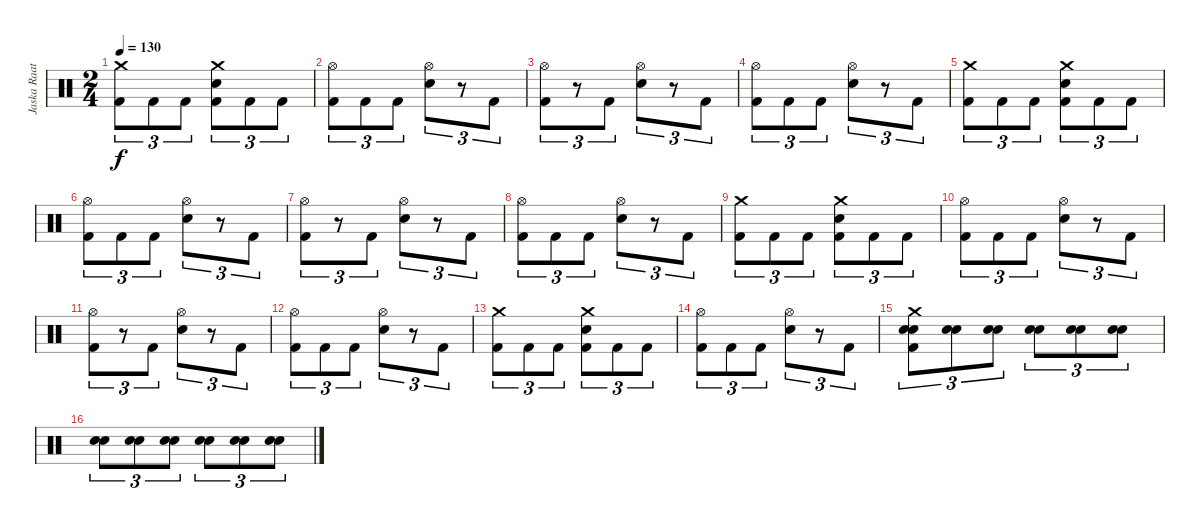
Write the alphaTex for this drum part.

\track ("Jaska Raatikainen Drum Part" "Jaska Raat") {instrument percussion}
\staff {score}
\articulation defaults
\ts (2 4)
\tempo 130
\clef neutral
\ks c
("Crash medium (hit)" "Kick (hit) 2").8{tu (3 2) dy f} "Kick (hit) 2".8{tu (3 2)} "Kick (hit) 2".8{tu (3 2)} ("Crash medium (hit)" "Electric Snare (hit)" "Kick (hit) 2").8{tu (3 2)} "Kick (hit) 2".8{tu (3 2)} "Kick (hit) 2".8{tu (3 2)} |
("Hi-Hat (open)" "Kick (hit) 2").8{tu (3 2)} "Kick (hit) 2".8{tu (3 2)} "Kick (hit) 2".8{tu (3 2)} ("Hi-Hat (open)" "Electric Snare (hit)").8{tu (3 2)} r.8{tu (3 2)} "Kick (hit) 2".8{tu (3 2)} |
("Hi-Hat (open)" "Kick (hit) 2").8{tu (3 2)} r.8{tu (3 2)} "Kick (hit) 2".8{tu (3 2)} ("Hi-Hat (open)" "Electric Snare (hit)").8{tu (3 2)} r.8{tu (3 2)} "Kick (hit) 2".8{tu (3 2)} |
("Hi-Hat (open)" "Kick (hit) 2").8{tu (3 2)} "Kick (hit) 2".8{tu (3 2)} "Kick (hit) 2".8{tu (3 2)} ("Hi-Hat (open)" "Electric Snare (hit)").8{tu (3 2)} r.8{tu (3 2)} "Kick (hit) 2".8{tu (3 2)} |
("Crash medium (hit)" "Kick (hit) 2").8{tu (3 2)} "Kick (hit) 2".8{tu (3 2)} "Kick (hit) 2".8{tu (3 2)} ("Crash medium (hit)" "Electric Snare (hit)" "Kick (hit) 2").8{tu (3 2)} "Kick (hit) 2".8{tu (3 2)} "Kick (hit) 2".8{tu (3 2)} |
("Hi-Hat (open)" "Kick (hit) 2").8{tu (3 2)} "Kick (hit) 2".8{tu (3 2)} "Kick (hit) 2".8{tu (3 2)} ("Hi-Hat (open)" "Electric Snare (hit)").8{tu (3 2)} r.8{tu (3 2)} "Kick (hit) 2".8{tu (3 2)} |
("Hi-Hat (open)" "Kick (hit) 2").8{tu (3 2)} r.8{tu (3 2)} "Kick (hit) 2".8{tu (3 2)} ("Hi-Hat (open)" "Electric Snare (hit)").8{tu (3 2)} r.8{tu (3 2)} "Kick (hit) 2".8{tu (3 2)} |
("Hi-Hat (open)" "Kick (hit) 2").8{tu (3 2)} "Kick (hit) 2".8{tu (3 2)} "Kick (hit) 2".8{tu (3 2)} ("Hi-Hat (open)" "Electric Snare (hit)").8{tu (3 2)} r.8{tu (3 2)} "Kick (hit) 2".8{tu (3 2)} |
("Crash medium (hit)" "Kick (hit) 2").8{tu (3 2)} "Kick (hit) 2".8{tu (3 2)} "Kick (hit) 2".8{tu (3 2)} ("Crash medium (hit)" "Electric Snare (hit)" "Kick (hit) 2").8{tu (3 2)} "Kick (hit) 2".8{tu (3 2)} "Kick (hit) 2".8{tu (3 2)} |
("Hi-Hat (open)" "Kick (hit) 2").8{tu (3 2)} "Kick (hit) 2".8{tu (3 2)} "Kick (hit) 2".8{tu (3 2)} ("Hi-Hat (open)" "Electric Snare (hit)").8{tu (3 2)} r.8{tu (3 2)} "Kick (hit) 2".8{tu (3 2)} |
("Hi-Hat (open)" "Kick (hit) 2").8{tu (3 2)} r.8{tu (3 2)} "Kick (hit) 2".8{tu (3 2)} ("Hi-Hat (open)" "Electric Snare (hit)").8{tu (3 2)} r.8{tu (3 2)} "Kick (hit) 2".8{tu (3 2)} |
("Hi-Hat (open)" "Kick (hit) 2").8{tu (3 2)} "Kick (hit) 2".8{tu (3 2)} "Kick (hit) 2".8{tu (3 2)} ("Hi-Hat (open)" "Electric Snare (hit)").8{tu (3 2)} r.8{tu (3 2)} "Kick (hit) 2".8{tu (3 2)} |
("Crash medium (hit)" "Kick (hit) 2").8{tu (3 2)} "Kick (hit) 2".8{tu (3 2)} "Kick (hit) 2".8{tu (3 2)} ("Crash medium (hit)" "Electric Snare (hit)" "Kick (hit) 2").8{tu (3 2)} "Kick (hit) 2".8{tu (3 2)} "Kick (hit) 2".8{tu (3 2)} |
("Hi-Hat (open)" "Kick (hit) 2").8{tu (3 2)} "Kick (hit) 2".8{tu (3 2)} "Kick (hit) 2".8{tu (3 2)} ("Hi-Hat (open)" "Electric Snare (hit)").8{tu (3 2)} r.8{tu (3 2)} "Kick (hit) 2".8{tu (3 2)} |
("Crash medium (hit)" "Electric Snare (hit)" "Electric Snare (hit)" "Kick (hit) 2").8{tu (3 2) volume 7} ("Electric Snare (hit)" "Electric Snare (hit)").8{tu (3 2) volume 14} ("Electric Snare (hit)" "Electric Snare (hit)").8{tu (3 2)} ("Electric Snare (hit)" "Electric Snare (hit)").8{tu (3 2)} ("Electric Snare (hit)" "Electric Snare (hit)").8{tu (3 2)} ("Electric Snare (hit)" "Electric Snare (hit)").8{tu (3 2)} |
("Electric Snare (hit)" "Electric Snare (hit)").8{tu (3 2)} ("Electric Snare (hit)" "Electric Snare (hit)").8{tu (3 2)} ("Electric Snare (hit)" "Electric Snare (hit)").8{tu (3 2)} ("Electric Snare (hit)" "Electric Snare (hit)").8{tu (3 2)} ("Electric Snare (hit)" "Electric Snare (hit)").8{tu (3 2)} ("Electric Snare (hit)" "Electric Snare (hit)").8{tu (3 2)}
